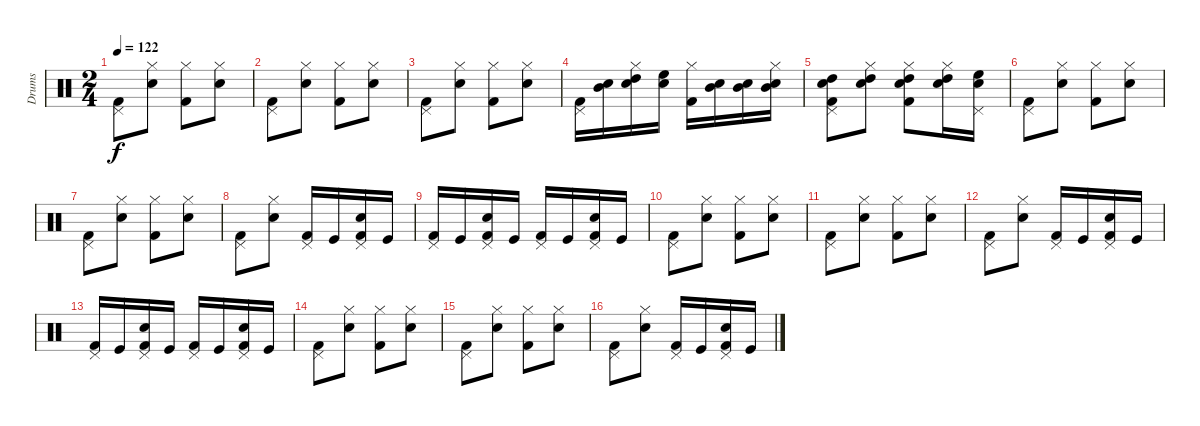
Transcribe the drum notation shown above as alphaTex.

\track ("Drums" "Drums") {instrument percussion}
\staff {score}
\articulation defaults
\ts (2 4)
\tempo 122
\clef neutral
\ks c
("Pedal Hi-Hat (hit)" "Kick (hit) 2").8{dy f} ("Hi-Hat (closed)" "Snare (hit) 2").8 ("Hi-Hat (closed)" "Kick (hit) 2").8 ("Hi-Hat (closed)" "Snare (hit) 2").8 |
("Pedal Hi-Hat (hit)" "Kick (hit) 2").8 ("Hi-Hat (closed)" "Snare (hit) 2").8 ("Hi-Hat (closed)" "Kick (hit) 2").8 ("Hi-Hat (closed)" "Snare (hit) 2").8 |
("Pedal Hi-Hat (hit)" "Kick (hit) 2").8 ("Hi-Hat (closed)" "Snare (hit) 2").8 ("Hi-Hat (closed)" "Kick (hit) 2").8 ("Hi-Hat (closed)" "Snare (hit) 2").8 |
("Pedal Hi-Hat (hit)" "Kick (hit) 2").16 ("Mid Tom (hit)" "Snare (hit) 2").16 ("Hi-Hat (closed)" "High Tom (hit)" "Snare (hit) 2").16 ("High Floor Tom (hit)" "Snare (hit) 2").16 ("Hi-Hat (closed)" "Kick (hit) 2").16 ("Mid Tom (hit)" "Snare (hit) 2").16 ("Mid Tom (hit)" "Snare (hit) 2").16 ("Hi-Hat (closed)" "Mid Tom (hit)" "Snare (hit) 2").16 |
("Pedal Hi-Hat (hit)" "High Tom (hit)" "Snare (hit) 2" "Kick (hit) 2").8 ("Hi-Hat (closed)" "High Tom (hit)" "Snare (hit) 2").8 ("Hi-Hat (closed)" "High Tom (hit)" "Snare (hit) 2" "Kick (hit) 2").8 ("Hi-Hat (closed)" "High Tom (hit)" "Snare (hit) 2").16 ("Pedal Hi-Hat (hit)" "High Floor Tom (hit)" "Snare (hit) 2").16 |
("Pedal Hi-Hat (hit)" "Kick (hit) 2").8 ("Hi-Hat (closed)" "Snare (hit) 2").8 ("Hi-Hat (closed)" "Kick (hit) 2").8 ("Hi-Hat (closed)" "Snare (hit) 2").8 |
("Pedal Hi-Hat (hit)" "Kick (hit) 2").8 ("Hi-Hat (closed)" "Snare (hit) 2").8 ("Hi-Hat (closed)" "Kick (hit) 2").8 ("Hi-Hat (closed)" "Snare (hit) 2").8 |
("Pedal Hi-Hat (hit)" "Kick (hit) 2").8 ("Hi-Hat (closed)" "Snare (hit) 2").8 ("Pedal Hi-Hat (hit)" "Kick (hit) 2").16 "Kick (hit)".16 ("Pedal Hi-Hat (hit)" "Snare (hit) 2" "Kick (hit) 2").16 "Kick (hit)".16 |
("Pedal Hi-Hat (hit)" "Kick (hit) 2").16 "Kick (hit)".16 ("Pedal Hi-Hat (hit)" "Snare (hit) 2" "Kick (hit) 2").16 "Kick (hit)".16 ("Pedal Hi-Hat (hit)" "Kick (hit) 2").16 "Kick (hit)".16 ("Pedal Hi-Hat (hit)" "Snare (hit) 2" "Kick (hit) 2").16 "Kick (hit)".16 |
("Pedal Hi-Hat (hit)" "Kick (hit) 2").8 ("Hi-Hat (closed)" "Snare (hit) 2").8 ("Hi-Hat (closed)" "Kick (hit) 2").8 ("Hi-Hat (closed)" "Snare (hit) 2").8 |
("Pedal Hi-Hat (hit)" "Kick (hit) 2").8 ("Hi-Hat (closed)" "Snare (hit) 2").8 ("Hi-Hat (closed)" "Kick (hit) 2").8 ("Hi-Hat (closed)" "Snare (hit) 2").8 |
("Pedal Hi-Hat (hit)" "Kick (hit) 2").8 ("Hi-Hat (closed)" "Snare (hit) 2").8 ("Pedal Hi-Hat (hit)" "Kick (hit) 2").16 "Kick (hit)".16 ("Pedal Hi-Hat (hit)" "Snare (hit) 2" "Kick (hit) 2").16 "Kick (hit)".16 |
("Pedal Hi-Hat (hit)" "Kick (hit) 2").16 "Kick (hit)".16 ("Pedal Hi-Hat (hit)" "Snare (hit) 2" "Kick (hit) 2").16 "Kick (hit)".16 ("Pedal Hi-Hat (hit)" "Kick (hit) 2").16 "Kick (hit)".16 ("Pedal Hi-Hat (hit)" "Snare (hit) 2" "Kick (hit) 2").16 "Kick (hit)".16 |
("Pedal Hi-Hat (hit)" "Kick (hit) 2").8 ("Hi-Hat (closed)" "Snare (hit) 2").8 ("Hi-Hat (closed)" "Kick (hit) 2").8 ("Hi-Hat (closed)" "Snare (hit) 2").8 |
("Pedal Hi-Hat (hit)" "Kick (hit) 2").8 ("Hi-Hat (closed)" "Snare (hit) 2").8 ("Hi-Hat (closed)" "Kick (hit) 2").8 ("Hi-Hat (closed)" "Snare (hit) 2").8 |
("Pedal Hi-Hat (hit)" "Kick (hit) 2").8 ("Hi-Hat (closed)" "Snare (hit) 2").8 ("Pedal Hi-Hat (hit)" "Kick (hit) 2").16 "Kick (hit)".16 ("Pedal Hi-Hat (hit)" "Snare (hit) 2" "Kick (hit) 2").16 "Kick (hit)".16
